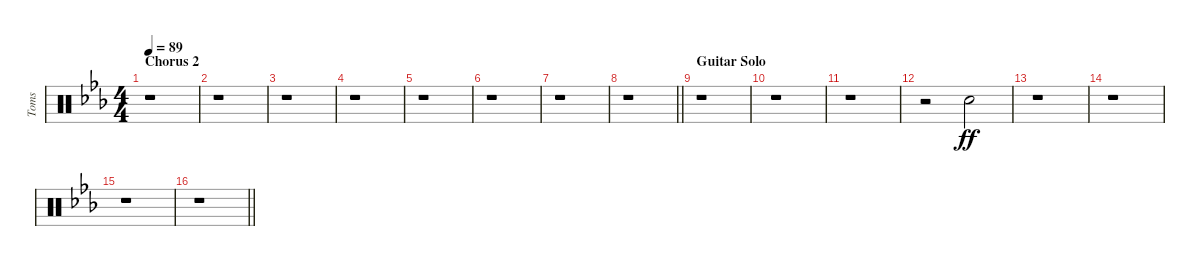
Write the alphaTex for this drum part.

\track ("Toms" "Toms") {instrument percussion}
\staff {score}
\articulation defaults
\ts (4 4)
\section ("" "Chorus 2")
\tempo 89
\clef neutral
\ks eb
r.1{dy ff} |
r.1 |
r.1 |
r.1 |
r.1 |
r.1 |
r.1 |
\barLineRight lightlight
r.1 |
\section ("" "Guitar Solo")
r.1 |
r.1 |
r.1 |
r.2 "Electric Snare (hit)".2{balance 8} |
r.1 |
r.1 |
r.1 |
\barLineRight lightlight
r.1
